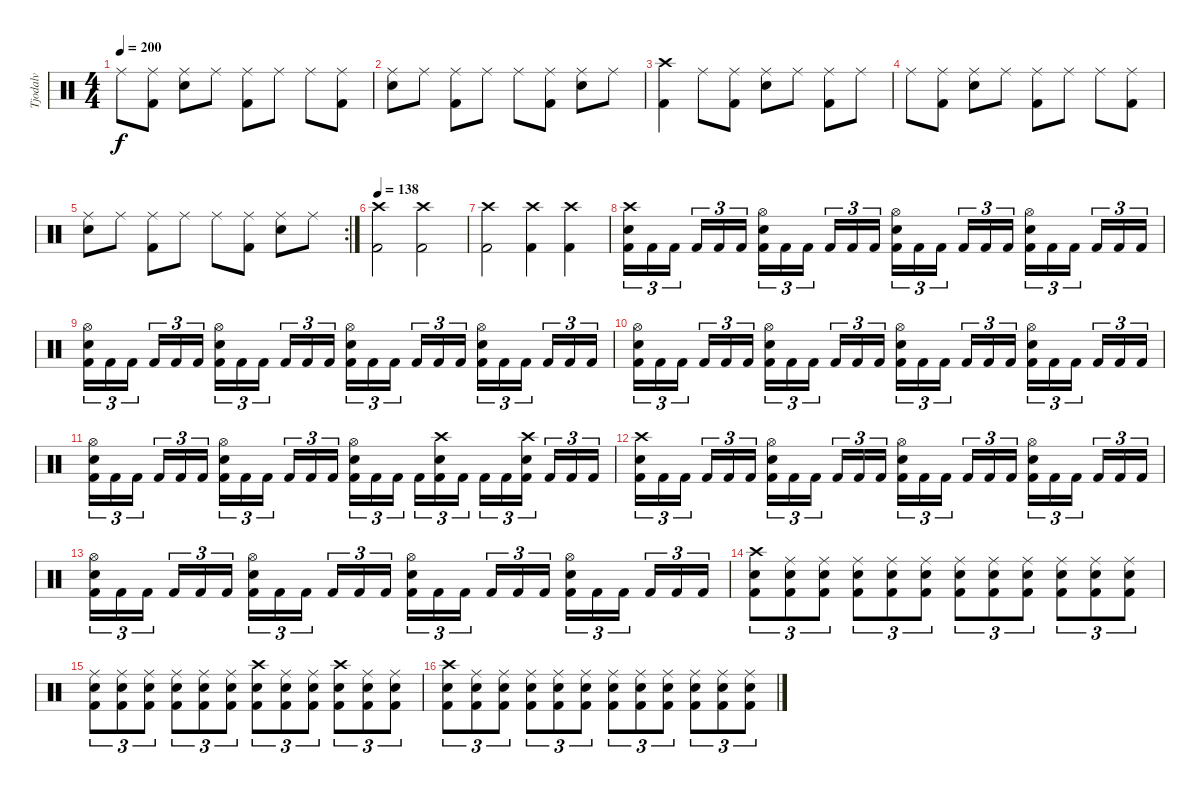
\track ("Tjodalv" "Tjodalv") {instrument percussion}
\staff {score}
\articulation defaults
\ts (4 4)
\tempo 200
\clef neutral
\ks c "Ride (middle)".8{dy f}
("Kick (hit) 2" "Ride (middle)").8 ("Snare (hit) 2" "Ride (middle)").8 "Ride (middle)".8 ("Kick (hit) 2" "Ride (middle)").8 "Ride (middle)".8 "Ride (middle)".8 ("Kick (hit) 2" "Ride (middle)").8 |
("Snare (hit) 2" "Ride (middle)").8 "Ride (middle)".8 ("Kick (hit) 2" "Ride (middle)").8 "Ride (middle)".8 "Ride (middle)".8 ("Kick (hit) 2" "Ride (middle)").8 ("Snare (hit) 2" "Ride (middle)").8 "Ride (middle)".8 |
("Kick (hit) 2" "Crash high (hit)").4 "Ride (middle)".8 ("Kick (hit) 2" "Ride (middle)").8 ("Snare (hit) 2" "Ride (middle)").8 "Ride (middle)".8 ("Kick (hit) 2" "Ride (middle)").8 "Ride (middle)".8 |
"Ride (middle)".8 ("Kick (hit) 2" "Ride (middle)").8 ("Snare (hit) 2" "Ride (middle)").8 "Ride (middle)".8 ("Kick (hit) 2" "Ride (middle)").8 "Ride (middle)".8 "Ride (middle)".8 ("Kick (hit) 2" "Ride (middle)").8 |
\rc 2
("Snare (hit) 2" "Ride (middle)").8 "Ride (middle)".8 ("Kick (hit) 2" "Ride (middle)").8 "Ride (middle)".8 "Ride (middle)".8 ("Kick (hit) 2" "Ride (middle)").8 ("Snare (hit) 2" "Ride (middle)").8 "Ride (middle)".8 |
\tempo 138
("Kick (hit) 2" "Crash high (hit)").2 ("Kick (hit) 2" "Crash high (hit)").2 |
("Kick (hit) 2" "Crash high (hit)").2 ("Kick (hit) 2" "Crash high (hit)").4 ("Kick (hit) 2" "Crash high (hit)").4 |
("Kick (hit) 2" "Snare (hit) 2" "Crash high (hit)").16{tu (3 2)} "Kick (hit) 2".16{tu (3 2)} "Kick (hit) 2".16{tu (3 2)} "Kick (hit) 2".16{tu (3 2)} "Kick (hit) 2".16{tu (3 2)} "Kick (hit) 2".16{tu (3 2)} ("Kick (hit) 2" "Snare (hit) 2" "Hi-Hat (open)").16{tu (3 2)} "Kick (hit) 2".16{tu (3 2)} "Kick (hit) 2".16{tu (3 2)} "Kick (hit) 2".16{tu (3 2)} "Kick (hit) 2".16{tu (3 2)} "Kick (hit) 2".16{tu (3 2)} ("Kick (hit) 2" "Snare (hit) 2" "Hi-Hat (open)").16{tu (3 2)} "Kick (hit) 2".16{tu (3 2)} "Kick (hit) 2".16{tu (3 2)} "Kick (hit) 2".16{tu (3 2)} "Kick (hit) 2".16{tu (3 2)} "Kick (hit) 2".16{tu (3 2)} ("Kick (hit) 2" "Snare (hit) 2" "Hi-Hat (open)").16{tu (3 2)} "Kick (hit) 2".16{tu (3 2)} "Kick (hit) 2".16{tu (3 2)} "Kick (hit) 2".16{tu (3 2)} "Kick (hit) 2".16{tu (3 2)} "Kick (hit) 2".16{tu (3 2)} |
("Kick (hit) 2" "Snare (hit) 2" "Hi-Hat (open)").16{tu (3 2)} "Kick (hit) 2".16{tu (3 2)} "Kick (hit) 2".16{tu (3 2)} "Kick (hit) 2".16{tu (3 2)} "Kick (hit) 2".16{tu (3 2)} "Kick (hit) 2".16{tu (3 2)} ("Kick (hit) 2" "Snare (hit) 2" "Hi-Hat (open)").16{tu (3 2)} "Kick (hit) 2".16{tu (3 2)} "Kick (hit) 2".16{tu (3 2)} "Kick (hit) 2".16{tu (3 2)} "Kick (hit) 2".16{tu (3 2)} "Kick (hit) 2".16{tu (3 2)} ("Kick (hit) 2" "Snare (hit) 2" "Hi-Hat (open)").16{tu (3 2)} "Kick (hit) 2".16{tu (3 2)} "Kick (hit) 2".16{tu (3 2)} "Kick (hit) 2".16{tu (3 2)} "Kick (hit) 2".16{tu (3 2)} "Kick (hit) 2".16{tu (3 2)} ("Kick (hit) 2" "Snare (hit) 2" "Hi-Hat (open)").16{tu (3 2)} "Kick (hit) 2".16{tu (3 2)} "Kick (hit) 2".16{tu (3 2)} "Kick (hit) 2".16{tu (3 2)} "Kick (hit) 2".16{tu (3 2)} "Kick (hit) 2".16{tu (3 2)} |
("Kick (hit) 2" "Snare (hit) 2" "Hi-Hat (open)").16{tu (3 2)} "Kick (hit) 2".16{tu (3 2)} "Kick (hit) 2".16{tu (3 2)} "Kick (hit) 2".16{tu (3 2)} "Kick (hit) 2".16{tu (3 2)} "Kick (hit) 2".16{tu (3 2)} ("Kick (hit) 2" "Snare (hit) 2" "Hi-Hat (open)").16{tu (3 2)} "Kick (hit) 2".16{tu (3 2)} "Kick (hit) 2".16{tu (3 2)} "Kick (hit) 2".16{tu (3 2)} "Kick (hit) 2".16{tu (3 2)} "Kick (hit) 2".16{tu (3 2)} ("Kick (hit) 2" "Snare (hit) 2" "Hi-Hat (open)").16{tu (3 2)} "Kick (hit) 2".16{tu (3 2)} "Kick (hit) 2".16{tu (3 2)} "Kick (hit) 2".16{tu (3 2)} "Kick (hit) 2".16{tu (3 2)} "Kick (hit) 2".16{tu (3 2)} ("Kick (hit) 2" "Snare (hit) 2" "Hi-Hat (open)").16{tu (3 2)} "Kick (hit) 2".16{tu (3 2)} "Kick (hit) 2".16{tu (3 2)} "Kick (hit) 2".16{tu (3 2)} "Kick (hit) 2".16{tu (3 2)} "Kick (hit) 2".16{tu (3 2)} |
("Kick (hit) 2" "Snare (hit) 2" "Hi-Hat (open)").16{tu (3 2)} "Kick (hit) 2".16{tu (3 2)} "Kick (hit) 2".16{tu (3 2)} "Kick (hit) 2".16{tu (3 2)} "Kick (hit) 2".16{tu (3 2)} "Kick (hit) 2".16{tu (3 2)} ("Kick (hit) 2" "Snare (hit) 2" "Hi-Hat (open)").16{tu (3 2)} "Kick (hit) 2".16{tu (3 2)} "Kick (hit) 2".16{tu (3 2)} "Kick (hit) 2".16{tu (3 2)} "Kick (hit) 2".16{tu (3 2)} "Kick (hit) 2".16{tu (3 2)} ("Kick (hit) 2" "Snare (hit) 2" "Hi-Hat (open)").16{tu (3 2)} "Kick (hit) 2".16{tu (3 2)} "Kick (hit) 2".16{tu (3 2)} "Kick (hit) 2".16{tu (3 2)} ("Kick (hit) 2" "Snare (hit) 2" "Crash high (hit)").16{tu (3 2)} "Kick (hit) 2".16{tu (3 2)} "Kick (hit) 2".16{tu (3 2)} "Kick (hit) 2".16{tu (3 2)} ("Kick (hit) 2" "Snare (hit) 2" "Crash high (hit)").16{tu (3 2)} "Kick (hit) 2".16{tu (3 2)} "Kick (hit) 2".16{tu (3 2)} "Kick (hit) 2".16{tu (3 2)} |
("Kick (hit) 2" "Snare (hit) 2" "Crash high (hit)").16{tu (3 2)} "Kick (hit) 2".16{tu (3 2)} "Kick (hit) 2".16{tu (3 2)} "Kick (hit) 2".16{tu (3 2)} "Kick (hit) 2".16{tu (3 2)} "Kick (hit) 2".16{tu (3 2)} ("Kick (hit) 2" "Snare (hit) 2" "Hi-Hat (open)").16{tu (3 2)} "Kick (hit) 2".16{tu (3 2)} "Kick (hit) 2".16{tu (3 2)} "Kick (hit) 2".16{tu (3 2)} "Kick (hit) 2".16{tu (3 2)} "Kick (hit) 2".16{tu (3 2)} ("Kick (hit) 2" "Snare (hit) 2" "Hi-Hat (open)").16{tu (3 2)} "Kick (hit) 2".16{tu (3 2)} "Kick (hit) 2".16{tu (3 2)} "Kick (hit) 2".16{tu (3 2)} "Kick (hit) 2".16{tu (3 2)} "Kick (hit) 2".16{tu (3 2)} ("Kick (hit) 2" "Snare (hit) 2" "Hi-Hat (open)").16{tu (3 2)} "Kick (hit) 2".16{tu (3 2)} "Kick (hit) 2".16{tu (3 2)} "Kick (hit) 2".16{tu (3 2)} "Kick (hit) 2".16{tu (3 2)} "Kick (hit) 2".16{tu (3 2)} |
("Kick (hit) 2" "Snare (hit) 2" "Hi-Hat (open)").16{tu (3 2)} "Kick (hit) 2".16{tu (3 2)} "Kick (hit) 2".16{tu (3 2)} "Kick (hit) 2".16{tu (3 2)} "Kick (hit) 2".16{tu (3 2)} "Kick (hit) 2".16{tu (3 2)} ("Kick (hit) 2" "Snare (hit) 2" "Hi-Hat (open)").16{tu (3 2)} "Kick (hit) 2".16{tu (3 2)} "Kick (hit) 2".16{tu (3 2)} "Kick (hit) 2".16{tu (3 2)} "Kick (hit) 2".16{tu (3 2)} "Kick (hit) 2".16{tu (3 2)} ("Kick (hit) 2" "Snare (hit) 2" "Hi-Hat (open)").16{tu (3 2)} "Kick (hit) 2".16{tu (3 2)} "Kick (hit) 2".16{tu (3 2)} "Kick (hit) 2".16{tu (3 2)} "Kick (hit) 2".16{tu (3 2)} "Kick (hit) 2".16{tu (3 2)} ("Kick (hit) 2" "Snare (hit) 2" "Hi-Hat (open)").16{tu (3 2)} "Kick (hit) 2".16{tu (3 2)} "Kick (hit) 2".16{tu (3 2)} "Kick (hit) 2".16{tu (3 2)} "Kick (hit) 2".16{tu (3 2)} "Kick (hit) 2".16{tu (3 2)} |
("Kick (hit) 2" "Snare (hit) 2" "Crash high (hit)").8{tu (3 2)} ("Kick (hit) 2" "Snare (hit) 2" "Ride (middle)").8{tu (3 2)} ("Kick (hit) 2" "Snare (hit) 2" "Ride (middle)").8{tu (3 2)} ("Kick (hit) 2" "Snare (hit) 2" "Ride (middle)").8{tu (3 2)} ("Kick (hit) 2" "Snare (hit) 2" "Ride (middle)").8{tu (3 2)} ("Kick (hit) 2" "Snare (hit) 2" "Ride (middle)").8{tu (3 2)} ("Kick (hit) 2" "Snare (hit) 2" "Ride (middle)").8{tu (3 2)} ("Kick (hit) 2" "Snare (hit) 2" "Ride (middle)").8{tu (3 2)} ("Kick (hit) 2" "Snare (hit) 2" "Ride (middle)").8{tu (3 2)} ("Kick (hit) 2" "Snare (hit) 2" "Ride (middle)").8{tu (3 2)} ("Kick (hit) 2" "Snare (hit) 2" "Ride (middle)").8{tu (3 2)} ("Kick (hit) 2" "Snare (hit) 2" "Ride (middle)").8{tu (3 2)} |
("Kick (hit) 2" "Snare (hit) 2" "Ride (middle)").8{tu (3 2)} ("Kick (hit) 2" "Snare (hit) 2" "Ride (middle)").8{tu (3 2)} ("Kick (hit) 2" "Snare (hit) 2" "Ride (middle)").8{tu (3 2)} ("Kick (hit) 2" "Snare (hit) 2" "Ride (middle)").8{tu (3 2)} ("Kick (hit) 2" "Snare (hit) 2" "Ride (middle)").8{tu (3 2)} ("Kick (hit) 2" "Snare (hit) 2" "Ride (middle)").8{tu (3 2)} ("Kick (hit) 2" "Snare (hit) 2" "Crash high (hit)").8{tu (3 2)} ("Kick (hit) 2" "Snare (hit) 2" "Ride (middle)").8{tu (3 2)} ("Kick (hit) 2" "Snare (hit) 2" "Ride (middle)").8{tu (3 2)} ("Kick (hit) 2" "Snare (hit) 2" "Crash high (hit)").8{tu (3 2)} ("Kick (hit) 2" "Snare (hit) 2" "Ride (middle)").8{tu (3 2)} ("Kick (hit) 2" "Snare (hit) 2" "Ride (middle)").8{tu (3 2)} |
("Kick (hit) 2" "Snare (hit) 2" "Crash high (hit)").8{tu (3 2)} ("Kick (hit) 2" "Snare (hit) 2" "Ride (middle)").8{tu (3 2)} ("Kick (hit) 2" "Snare (hit) 2" "Ride (middle)").8{tu (3 2)} ("Kick (hit) 2" "Snare (hit) 2" "Ride (middle)").8{tu (3 2)} ("Kick (hit) 2" "Snare (hit) 2" "Ride (middle)").8{tu (3 2)} ("Kick (hit) 2" "Snare (hit) 2" "Ride (middle)").8{tu (3 2)} ("Kick (hit) 2" "Snare (hit) 2" "Ride (middle)").8{tu (3 2)} ("Kick (hit) 2" "Snare (hit) 2" "Ride (middle)").8{tu (3 2)} ("Kick (hit) 2" "Snare (hit) 2" "Ride (middle)").8{tu (3 2)} ("Kick (hit) 2" "Snare (hit) 2" "Ride (middle)").8{tu (3 2)} ("Kick (hit) 2" "Snare (hit) 2" "Ride (middle)").8{tu (3 2)} ("Kick (hit) 2" "Snare (hit) 2" "Ride (middle)").8{tu (3 2)}
